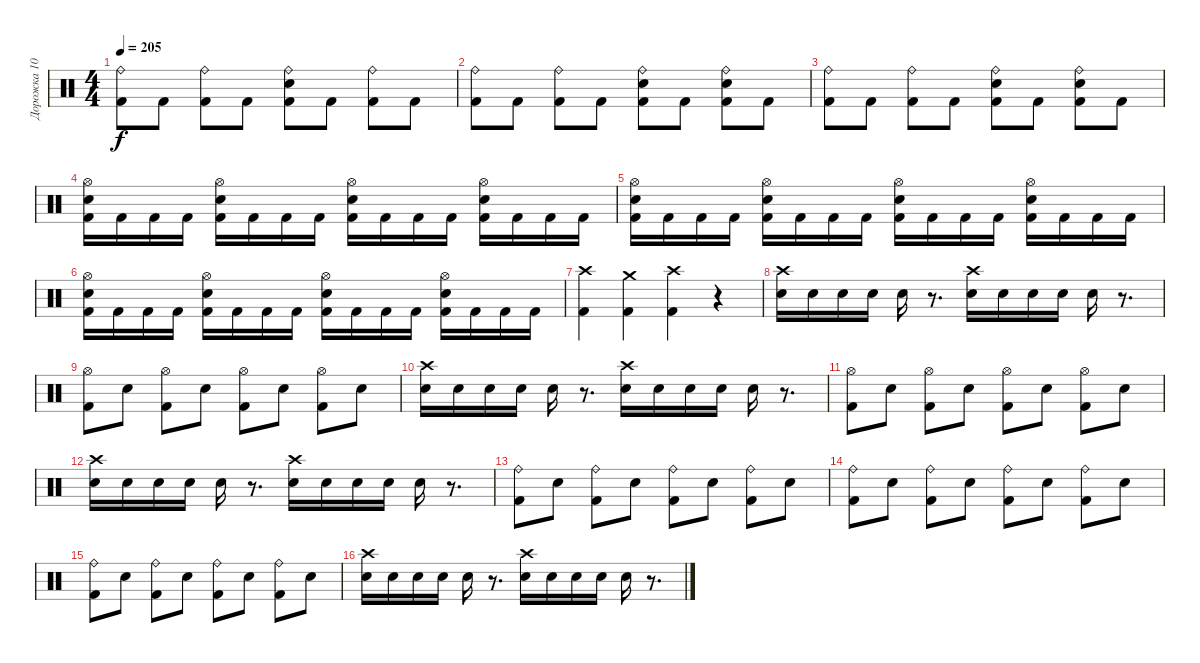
\track ("Дорожка 10" "Дорожка 10") {instrument percussion}
\staff {score}
\articulation defaults
\ts (4 4)
\tempo 205
\clef neutral
\ks c
("Ride (bell)" "Kick (hit) 2").8{dy f} "Kick (hit) 2".8 ("Ride (bell)" "Kick (hit) 2").8 "Kick (hit) 2".8 ("Ride (bell)" "Electric Snare (hit)" "Kick (hit) 2").8 "Kick (hit) 2".8 ("Ride (bell)" "Kick (hit) 2").8 "Kick (hit) 2".8 |
("Ride (bell)" "Kick (hit) 2").8 "Kick (hit) 2".8 ("Ride (bell)" "Kick (hit) 2").8 "Kick (hit) 2".8 ("Ride (bell)" "Electric Snare (hit)" "Kick (hit) 2").8 "Kick (hit) 2".8 ("Ride (bell)" "Electric Snare (hit)" "Kick (hit) 2").8 "Kick (hit) 2".8 |
("Ride (bell)" "Kick (hit) 2").8 "Kick (hit) 2".8 ("Ride (bell)" "Kick (hit) 2").8 "Kick (hit) 2".8 ("Ride (bell)" "Electric Snare (hit)" "Kick (hit) 2").8 "Kick (hit) 2".8 ("Ride (bell)" "Electric Snare (hit)" "Kick (hit) 2").8 "Kick (hit) 2".8 |
("Hi-Hat (open)" "Electric Snare (hit)" "Kick (hit) 2").16 "Kick (hit) 2".16 "Kick (hit) 2".16 "Kick (hit) 2".16 ("Hi-Hat (open)" "Electric Snare (hit)" "Kick (hit) 2").16 "Kick (hit) 2".16 "Kick (hit) 2".16 "Kick (hit) 2".16 ("Hi-Hat (open)" "Electric Snare (hit)" "Kick (hit) 2").16 "Kick (hit) 2".16 "Kick (hit) 2".16 "Kick (hit) 2".16 ("Hi-Hat (open)" "Electric Snare (hit)" "Kick (hit) 2").16 "Kick (hit) 2".16 "Kick (hit) 2".16 "Kick (hit) 2".16 |
("Hi-Hat (open)" "Electric Snare (hit)" "Kick (hit) 2").16 "Kick (hit) 2".16 "Kick (hit) 2".16 "Kick (hit) 2".16 ("Hi-Hat (open)" "Electric Snare (hit)" "Kick (hit) 2").16 "Kick (hit) 2".16 "Kick (hit) 2".16 "Kick (hit) 2".16 ("Hi-Hat (open)" "Electric Snare (hit)" "Kick (hit) 2").16 "Kick (hit) 2".16 "Kick (hit) 2".16 "Kick (hit) 2".16 ("Hi-Hat (open)" "Electric Snare (hit)" "Kick (hit) 2").16 "Kick (hit) 2".16 "Kick (hit) 2".16 "Kick (hit) 2".16 |
("Hi-Hat (open)" "Electric Snare (hit)" "Kick (hit) 2").16 "Kick (hit) 2".16 "Kick (hit) 2".16 "Kick (hit) 2".16 ("Hi-Hat (open)" "Electric Snare (hit)" "Kick (hit) 2").16 "Kick (hit) 2".16 "Kick (hit) 2".16 "Kick (hit) 2".16 ("Hi-Hat (open)" "Electric Snare (hit)" "Kick (hit) 2").16 "Kick (hit) 2".16 "Kick (hit) 2".16 "Kick (hit) 2".16 ("Hi-Hat (open)" "Electric Snare (hit)" "Kick (hit) 2").16 "Kick (hit) 2".16 "Kick (hit) 2".16 "Kick (hit) 2".16 |
("Crash high (hit)" "Kick (hit) 2").4 ("Crash medium (hit)" "Kick (hit) 2").4 ("Crash high (hit)" "Kick (hit) 2").4 r.4 |
("Crash high (hit)" "Snare (hit) 2").16 "Snare (hit) 2".16 "Snare (hit) 2".16 "Snare (hit) 2".16 "Snare (hit) 2".16 r.8{d} ("Crash high (hit)" "Snare (hit) 2").16 "Snare (hit) 2".16 "Snare (hit) 2".16 "Snare (hit) 2".16 "Snare (hit) 2".16 r.8{d} |
("Hi-Hat (open)" "Kick (hit) 2").8 "Snare (hit) 2".8 ("Hi-Hat (open)" "Kick (hit) 2").8 "Snare (hit) 2".8 ("Hi-Hat (open)" "Kick (hit) 2").8 "Snare (hit) 2".8 ("Hi-Hat (open)" "Kick (hit) 2").8 "Snare (hit) 2".8 |
("Crash high (hit)" "Snare (hit) 2").16 "Snare (hit) 2".16 "Snare (hit) 2".16 "Snare (hit) 2".16 "Snare (hit) 2".16 r.8{d} ("Crash high (hit)" "Snare (hit) 2").16 "Snare (hit) 2".16 "Snare (hit) 2".16 "Snare (hit) 2".16 "Snare (hit) 2".16 r.8{d} |
("Hi-Hat (open)" "Kick (hit) 2").8 "Snare (hit) 2".8 ("Hi-Hat (open)" "Kick (hit) 2").8 "Snare (hit) 2".8 ("Hi-Hat (open)" "Kick (hit) 2").8 "Snare (hit) 2".8 ("Hi-Hat (open)" "Kick (hit) 2").8 "Snare (hit) 2".8 |
("Crash high (hit)" "Snare (hit) 2").16 "Snare (hit) 2".16 "Snare (hit) 2".16 "Snare (hit) 2".16 "Snare (hit) 2".16 r.8{d} ("Crash high (hit)" "Snare (hit) 2").16 "Snare (hit) 2".16 "Snare (hit) 2".16 "Snare (hit) 2".16 "Snare (hit) 2".16 r.8{d} |
("Ride (bell)" "Kick (hit) 2").8 "Snare (hit) 2".8 ("Ride (bell)" "Kick (hit) 2").8 "Snare (hit) 2".8 ("Ride (bell)" "Kick (hit) 2").8 "Snare (hit) 2".8 ("Ride (bell)" "Kick (hit) 2").8 "Snare (hit) 2".8 |
("Ride (bell)" "Kick (hit) 2").8 "Snare (hit) 2".8 ("Ride (bell)" "Kick (hit) 2").8 "Snare (hit) 2".8 ("Ride (bell)" "Kick (hit) 2").8 "Snare (hit) 2".8 ("Ride (bell)" "Kick (hit) 2").8 "Snare (hit) 2".8 |
("Ride (bell)" "Kick (hit) 2").8 "Snare (hit) 2".8 ("Ride (bell)" "Kick (hit) 2").8 "Snare (hit) 2".8 ("Ride (bell)" "Kick (hit) 2").8 "Snare (hit) 2".8 ("Ride (bell)" "Kick (hit) 2").8 "Snare (hit) 2".8 |
("Crash high (hit)" "Snare (hit) 2").16 "Snare (hit) 2".16 "Snare (hit) 2".16 "Snare (hit) 2".16 "Snare (hit) 2".16 r.8{d} ("Crash high (hit)" "Snare (hit) 2").16 "Snare (hit) 2".16 "Snare (hit) 2".16 "Snare (hit) 2".16 "Snare (hit) 2".16 r.8{d}
